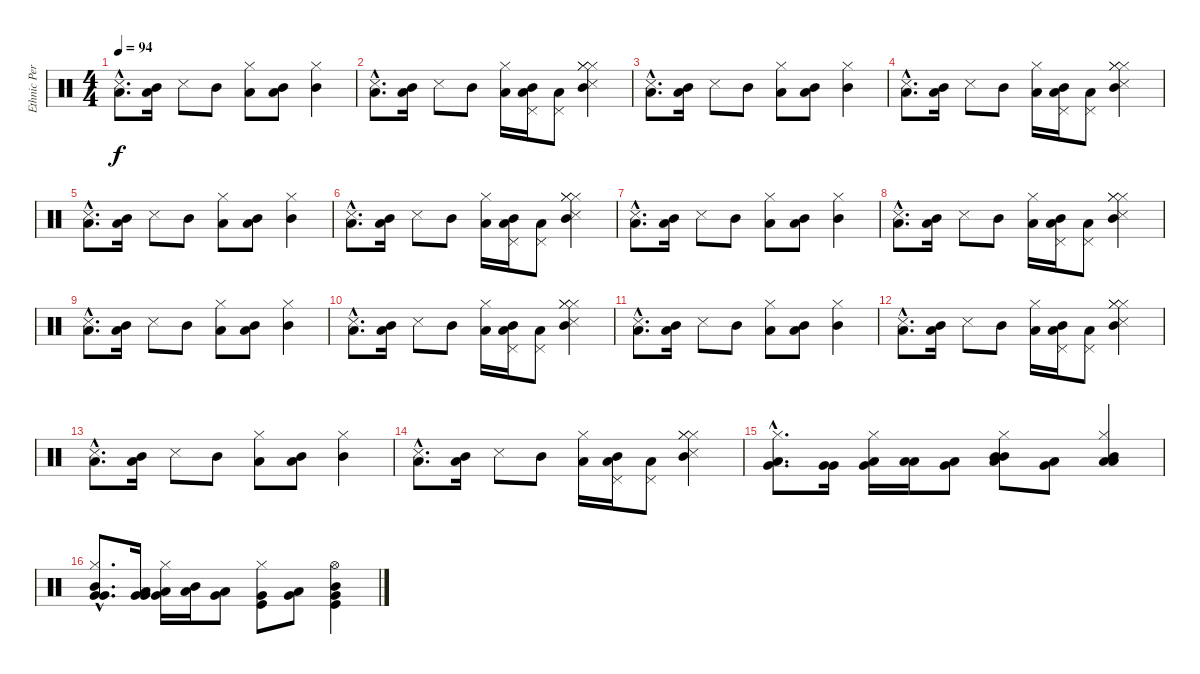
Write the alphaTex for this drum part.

\track ("Ethnic Percussion" "Ethnic Per") {instrument percussion}
\staff {score}
\articulation defaults
\ts (4 4)
\tempo 94
\clef neutral
\ks c
("Low Tom (hit)"{hac} "Snare (side stick) 3"{hac}).8{d dy f} ("Low Tom (hit)" "Mid Tom (hit)").16 "Snare (side stick) 3".8 "Mid Tom (hit)".8 ("Low Tom (hit)" "Hi-Hat (closed)").8 ("Low Tom (hit)" "Mid Tom (hit)").8 ("Mid Tom (hit)" "Hi-Hat (closed)").4 |
("Low Tom (hit)"{hac} "Snare (side stick) 3"{hac}).8{d} ("Low Tom (hit)" "Mid Tom (hit)").16 "Snare (side stick) 3".8 "Mid Tom (hit)".8 ("Low Tom (hit)" "Hi-Hat (closed)").16 ("Low Tom (hit)" "Pedal Hi-Hat (hit)" "Mid Tom (hit)").16 ("Low Tom (hit)" "Pedal Hi-Hat (hit)").8 ("Snare (side stick) 3" "Mid Tom (hit)" "Hi-Hat (closed)" "Hi-Hat (closed)" "Hi-Hat (closed)").4 |
("Low Tom (hit)"{hac} "Snare (side stick) 3"{hac}).8{d} ("Low Tom (hit)" "Mid Tom (hit)").16 "Snare (side stick) 3".8 "Mid Tom (hit)".8 ("Low Tom (hit)" "Hi-Hat (closed)").8 ("Low Tom (hit)" "Mid Tom (hit)").8 ("Mid Tom (hit)" "Hi-Hat (closed)").4 |
("Low Tom (hit)"{hac} "Snare (side stick) 3"{hac}).8{d} ("Low Tom (hit)" "Mid Tom (hit)").16 "Snare (side stick) 3".8 "Mid Tom (hit)".8 ("Low Tom (hit)" "Hi-Hat (closed)").16 ("Low Tom (hit)" "Pedal Hi-Hat (hit)" "Mid Tom (hit)").16 ("Low Tom (hit)" "Pedal Hi-Hat (hit)").8 ("Snare (side stick) 3" "Mid Tom (hit)" "Hi-Hat (closed)" "Hi-Hat (closed)" "Hi-Hat (closed)").4 |
("Low Tom (hit)"{hac} "Snare (side stick) 3"{hac}).8{d} ("Low Tom (hit)" "Mid Tom (hit)").16 "Snare (side stick) 3".8 "Mid Tom (hit)".8 ("Low Tom (hit)" "Hi-Hat (closed)").8 ("Low Tom (hit)" "Mid Tom (hit)").8 ("Mid Tom (hit)" "Hi-Hat (closed)").4 |
("Low Tom (hit)"{hac} "Snare (side stick) 3"{hac}).8{d} ("Low Tom (hit)" "Mid Tom (hit)").16 "Snare (side stick) 3".8 "Mid Tom (hit)".8 ("Low Tom (hit)" "Hi-Hat (closed)").16 ("Low Tom (hit)" "Pedal Hi-Hat (hit)" "Mid Tom (hit)").16 ("Low Tom (hit)" "Pedal Hi-Hat (hit)").8 ("Snare (side stick) 3" "Mid Tom (hit)" "Hi-Hat (closed)" "Hi-Hat (closed)" "Hi-Hat (closed)").4 |
("Low Tom (hit)"{hac} "Snare (side stick) 3"{hac}).8{d} ("Low Tom (hit)" "Mid Tom (hit)").16 "Snare (side stick) 3".8 "Mid Tom (hit)".8 ("Low Tom (hit)" "Hi-Hat (closed)").8 ("Low Tom (hit)" "Mid Tom (hit)").8 ("Mid Tom (hit)" "Hi-Hat (closed)").4 |
("Low Tom (hit)"{hac} "Snare (side stick) 3"{hac}).8{d} ("Low Tom (hit)" "Mid Tom (hit)").16 "Snare (side stick) 3".8 "Mid Tom (hit)".8 ("Low Tom (hit)" "Hi-Hat (closed)").16 ("Low Tom (hit)" "Pedal Hi-Hat (hit)" "Mid Tom (hit)").16 ("Low Tom (hit)" "Pedal Hi-Hat (hit)").8 ("Snare (side stick) 3" "Mid Tom (hit)" "Hi-Hat (closed)" "Hi-Hat (closed)" "Hi-Hat (closed)").4 |
("Low Tom (hit)"{hac} "Snare (side stick) 3"{hac}).8{d} ("Low Tom (hit)" "Mid Tom (hit)").16 "Snare (side stick) 3".8 "Mid Tom (hit)".8 ("Low Tom (hit)" "Hi-Hat (closed)").8 ("Low Tom (hit)" "Mid Tom (hit)").8 ("Mid Tom (hit)" "Hi-Hat (closed)").4 |
("Low Tom (hit)"{hac} "Snare (side stick) 3"{hac}).8{d} ("Low Tom (hit)" "Mid Tom (hit)").16 "Snare (side stick) 3".8 "Mid Tom (hit)".8 ("Low Tom (hit)" "Hi-Hat (closed)").16 ("Low Tom (hit)" "Pedal Hi-Hat (hit)" "Mid Tom (hit)").16 ("Low Tom (hit)" "Pedal Hi-Hat (hit)").8 ("Snare (side stick) 3" "Mid Tom (hit)" "Hi-Hat (closed)" "Hi-Hat (closed)" "Hi-Hat (closed)").4 |
("Low Tom (hit)"{hac} "Snare (side stick) 3"{hac}).8{d} ("Low Tom (hit)" "Mid Tom (hit)").16 "Snare (side stick) 3".8 "Mid Tom (hit)".8 ("Low Tom (hit)" "Hi-Hat (closed)").8 ("Low Tom (hit)" "Mid Tom (hit)").8 ("Mid Tom (hit)" "Hi-Hat (closed)").4 |
("Low Tom (hit)"{hac} "Snare (side stick) 3"{hac}).8{d} ("Low Tom (hit)" "Mid Tom (hit)").16 "Snare (side stick) 3".8 "Mid Tom (hit)".8 ("Low Tom (hit)" "Hi-Hat (closed)").16 ("Low Tom (hit)" "Pedal Hi-Hat (hit)" "Mid Tom (hit)").16 ("Low Tom (hit)" "Pedal Hi-Hat (hit)").8 ("Snare (side stick) 3" "Mid Tom (hit)" "Hi-Hat (closed)" "Hi-Hat (closed)" "Hi-Hat (closed)").4 |
("Low Tom (hit)"{hac} "Snare (side stick) 3"{hac}).8{d} ("Low Tom (hit)" "Mid Tom (hit)").16 "Snare (side stick) 3".8 "Mid Tom (hit)".8 ("Low Tom (hit)" "Hi-Hat (closed)").8 ("Low Tom (hit)" "Mid Tom (hit)").8 ("Mid Tom (hit)" "Hi-Hat (closed)").4 |
("Low Tom (hit)"{hac} "Snare (side stick) 3"{hac}).8{d} ("Low Tom (hit)" "Mid Tom (hit)").16 "Snare (side stick) 3".8 "Mid Tom (hit)".8 ("Low Tom (hit)" "Hi-Hat (closed)").16 ("Low Tom (hit)" "Pedal Hi-Hat (hit)" "Mid Tom (hit)").16 ("Low Tom (hit)" "Pedal Hi-Hat (hit)").8 ("Snare (side stick) 3" "Mid Tom (hit)" "Hi-Hat (closed)" "Hi-Hat (closed)" "Hi-Hat (closed)").4 |
("Very Low Tom (hit)"{hac} "Low Floor Tom (hit)"{hac} "Hi-Hat (closed)"{hac}).8{d} ("Very Low Tom (hit)" "Very Low Tom (hit)").16 ("Very Low Tom (hit)" "Low Floor Tom (hit)" "Hi-Hat (closed)").16 ("Low Tom (hit)" "Low Tom (hit)").16 ("Very Low Tom (hit)" "Low Floor Tom (hit)").8 ("Mid Tom (hit)" "Low Tom (hit)" "Mid Tom (hit)" "Hi-Hat (closed)").8 ("Low Tom (hit)" "Very Low Tom (hit)").8 ("Mid Tom (hit)" "Low Floor Tom (hit)" "Low Tom (hit)" "Hi-Hat (closed)").4 |
("Very Low Tom (hit)"{hac} "Very Low Tom (hit)"{hac} "Mid Tom (hit)"{hac} "Hi-Hat (closed)"{hac}).8{d} ("Very Low Tom (hit)" "Very Low Tom (hit)" "Low Floor Tom (hit)").16 ("Very Low Tom (hit)" "Low Floor Tom (hit)" "Hi-Hat (closed)").16 ("Mid Tom (hit)" "Low Tom (hit)").16 ("Very Low Tom (hit)" "Low Tom (hit)").8 ("Kick (hit)" "Very Low Tom (hit)" "Hi-Hat (closed)").8 ("Low Tom (hit)" "Very Low Tom (hit)").8 ("Very Low Tom (hit)" "Kick (hit)" "Hi-Hat (open)" "Mid Tom (hit)").4
